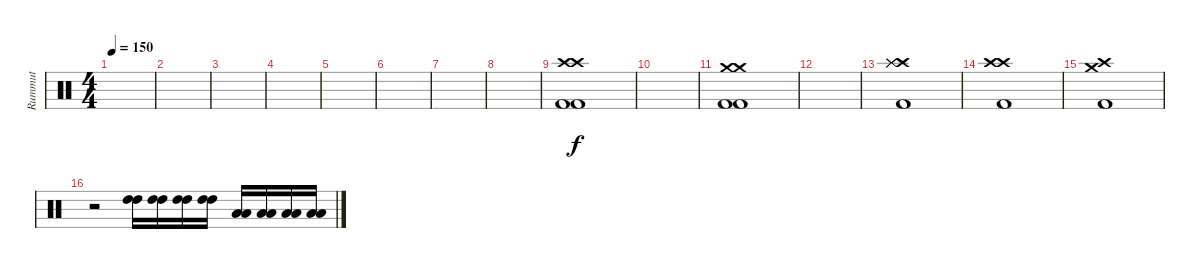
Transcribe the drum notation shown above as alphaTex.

\track ("Rummut" "Rummut") {instrument percussion}
\staff {score}
\articulation defaults
\ts (4 4)
\tempo 150
\clef neutral
\ks c
|
|
|
|
|
|
|
|
("Crash high (hit)" "Crash high (hit)" "Kick (hit) 2" "Kick (hit) 2").1 |
|
("Crash medium (hit)" "Crash medium (hit)" "Kick (hit) 2" "Kick (hit) 2").1 |
|
("Crash high (hit)" "Splash (hit)" "Splash (hit)" "Splash (hit)" "Kick (hit) 2").1 |
("Crash high (hit)" "Crash high (hit)" "Kick (hit) 2").1 |
("Crash high (hit)" "Crash medium (hit)" "Kick (hit) 2").1 |
r.2 ("High Tom (hit)" "High Tom (hit)").16{volume 14} ("High Tom (hit)" "High Tom (hit)").16 ("High Tom (hit)" "High Tom (hit)").16 ("High Tom (hit)" "High Tom (hit)").16 ("Low Tom (hit)" "Low Tom (hit)").16 ("Low Tom (hit)" "Low Tom (hit)").16 ("Low Tom (hit)" "Low Tom (hit)").16 ("Low Tom (hit)" "Low Tom (hit)").16
